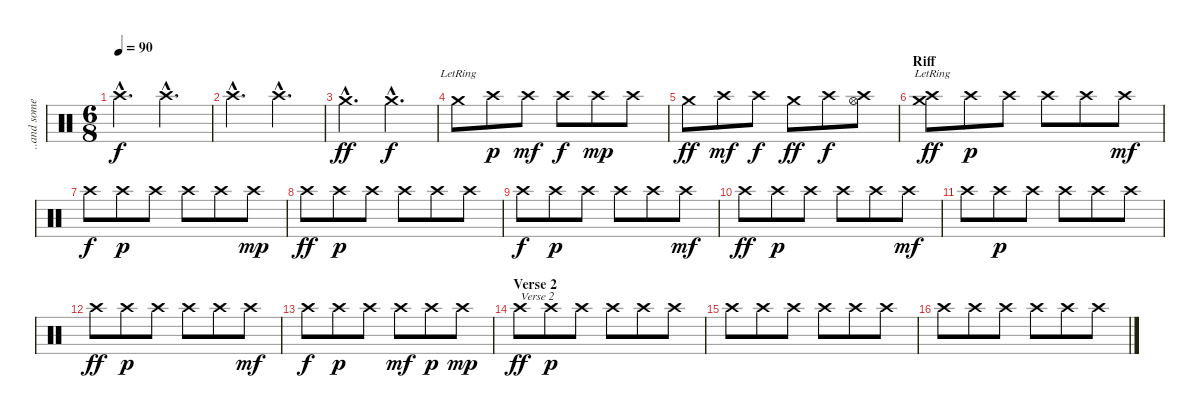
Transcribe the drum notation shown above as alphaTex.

\track ("..and some cymbals" "..and some") {instrument percussion}
\staff {score}
\articulation defaults
\ts (6 8)
\tempo 90
\clef neutral
\ks c "Crash high (hit)"{hac}.4{d dy f} "Crash high (hit)"{hac}.4{d}
|
"Crash high (hit)"{hac}.4{d} "Crash high (hit)"{hac}.4{d} |
"Crash medium (hit)"{hac}.4{d dy ff} "Crash medium (hit)"{hac}.4{d dy f} |
"Crash medium (hit)"{lr}.8 "Crash high (hit)".8{dy p} "Crash high (hit)".8{dy mf} "Crash high (hit)".8{dy f} "Crash high (hit)".8{dy mp} "Crash high (hit)".8 |
"Crash medium (hit)".8{dy ff} "Crash high (hit)".8{dy mf} "Crash high (hit)".8{dy f} "Crash medium (hit)".8{dy ff} "Crash high (hit)".8{dy f} ("Crash high (hit)" "Hi-Hat (open)").8 |
\section ("" "Riff")
("Crash high (hit)" "Crash medium (hit)"{lr}).8{dy ff} "Crash high (hit)".8{dy p} "Crash high (hit)".8 "Crash high (hit)".8 "Crash high (hit)".8 "Crash high (hit)".8{dy mf} |
"Crash high (hit)".8{dy f} "Crash high (hit)".8{dy p} "Crash high (hit)".8 "Crash high (hit)".8 "Crash high (hit)".8 "Crash high (hit)".8{dy mp} |
"Crash high (hit)".8{dy ff} "Crash high (hit)".8{dy p} "Crash high (hit)".8 "Crash high (hit)".8 "Crash high (hit)".8 "Crash high (hit)".8 |
"Crash high (hit)".8{dy f} "Crash high (hit)".8{dy p} "Crash high (hit)".8 "Crash high (hit)".8 "Crash high (hit)".8 "Crash high (hit)".8{dy mf} |
"Crash high (hit)".8{dy ff} "Crash high (hit)".8{dy p} "Crash high (hit)".8 "Crash high (hit)".8 "Crash high (hit)".8 "Crash high (hit)".8{dy mf} |
"Crash high (hit)".8 "Crash high (hit)".8{dy p} "Crash high (hit)".8 "Crash high (hit)".8 "Crash high (hit)".8 "Crash high (hit)".8 |
"Crash high (hit)".8{dy ff} "Crash high (hit)".8{dy p} "Crash high (hit)".8 "Crash high (hit)".8 "Crash high (hit)".8 "Crash high (hit)".8{dy mf} |
"Crash high (hit)".8{dy f} "Crash high (hit)".8{dy p} "Crash high (hit)".8 "Crash high (hit)".8{dy mf} "Crash high (hit)".8{dy p} "Crash high (hit)".8{dy mp} |
\section ("" "Verse 2")
"Crash high (hit)".8{txt "Verse 2" dy ff} "Crash high (hit)".8{dy p} "Crash high (hit)".8 "Crash high (hit)".8 "Crash high (hit)".8 "Crash high (hit)".8 |
"Crash high (hit)".8 "Crash high (hit)".8 "Crash high (hit)".8 "Crash high (hit)".8 "Crash high (hit)".8 "Crash high (hit)".8 |
"Crash high (hit)".8 "Crash high (hit)".8 "Crash high (hit)".8 "Crash high (hit)".8 "Crash high (hit)".8 "Crash high (hit)".8
